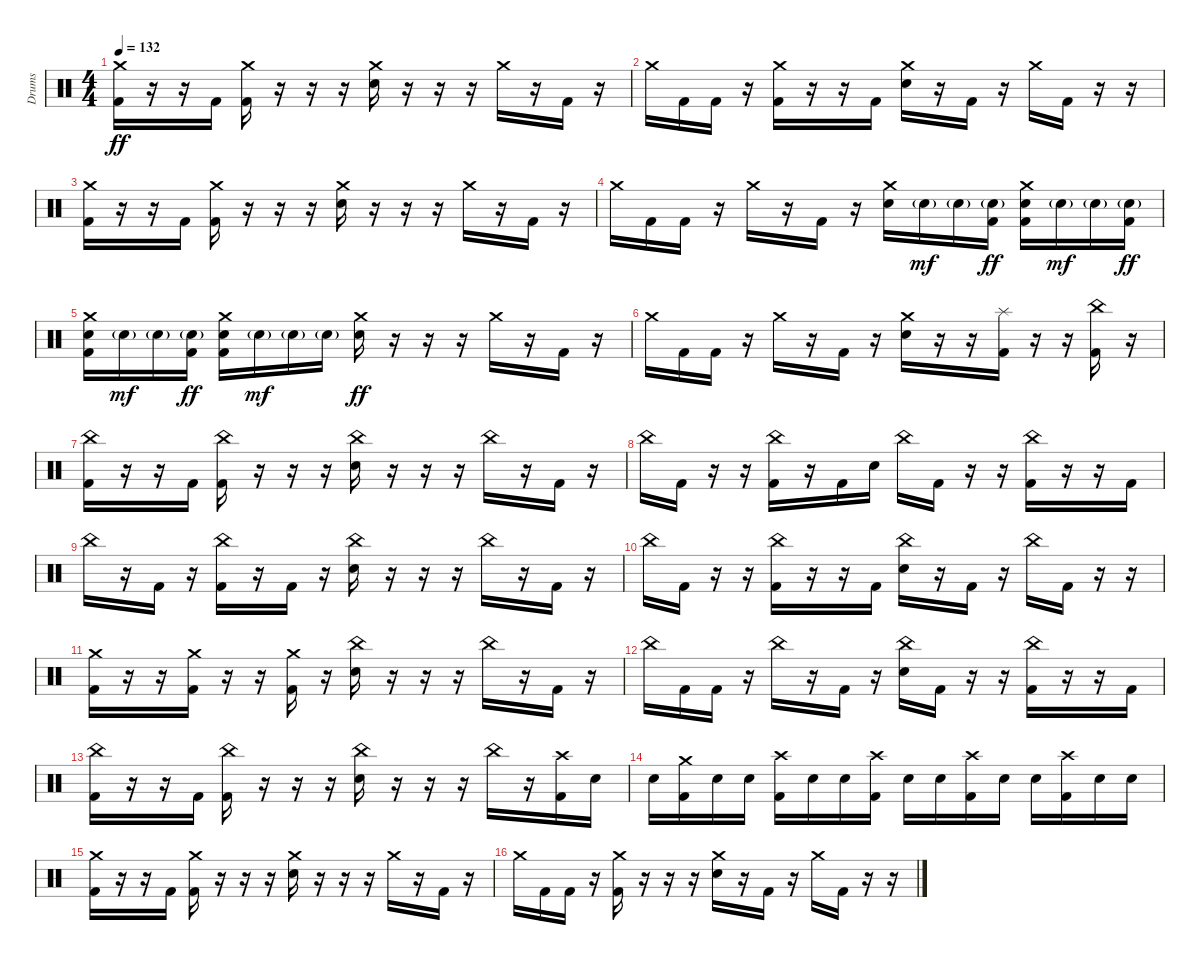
\track ("Drums" "Drums") {instrument percussion}
\staff {score}
\articulation defaults
\ts (4 4)
\tempo 132
\clef neutral
\ks c
("Crash medium (hit)" "Kick (hit) 2").16{dy ff} r.16 r.16 "Kick (hit) 2".16 ("Crash medium (hit)" "Kick (hit) 2").16 r.16 r.16 r.16 ("Crash medium (hit)" "Electric Snare (hit)").16 r.16 r.16 r.16 "Crash medium (hit)".16 r.16 "Kick (hit) 2".16 r.16 |
"Crash medium (hit)".16 "Kick (hit) 2".16 "Kick (hit) 2".16 r.16 ("Crash medium (hit)" "Kick (hit) 2").16 r.16 r.16 "Kick (hit) 2".16 ("Crash medium (hit)" "Electric Snare (hit)").16 r.16 "Kick (hit) 2".16 r.16 "Crash medium (hit)".16 "Kick (hit) 2".16 r.16 r.16 |
("Crash medium (hit)" "Kick (hit) 2").16 r.16 r.16 "Kick (hit) 2".16 ("Crash medium (hit)" "Kick (hit) 2").16 r.16 r.16 r.16 ("Crash medium (hit)" "Electric Snare (hit)").16 r.16 r.16 r.16 "Crash medium (hit)".16 r.16 "Kick (hit) 2".16 r.16 |
"Crash medium (hit)".16 "Kick (hit) 2".16 "Kick (hit) 2".16 r.16 "Crash medium (hit)".16 r.16 "Kick (hit) 2".16 r.16 ("Crash medium (hit)" "Electric Snare (hit)").16 "Electric Snare (hit)"{g}.16{dy mf} "Electric Snare (hit)"{g}.16 ("Electric Snare (hit)"{g} "Kick (hit) 2").16{dy ff} ("Crash medium (hit)" "Electric Snare (hit)" "Kick (hit) 2").16 "Electric Snare (hit)"{g}.16{dy mf} "Electric Snare (hit)"{g}.16 ("Electric Snare (hit)"{g} "Kick (hit) 2").16{dy ff} |
("Crash medium (hit)" "Electric Snare (hit)" "Kick (hit) 2").16 "Electric Snare (hit)"{g}.16{dy mf} "Electric Snare (hit)"{g}.16 ("Electric Snare (hit)"{g} "Kick (hit) 2").16{dy ff} ("Crash medium (hit)" "Electric Snare (hit)" "Kick (hit) 2").16 "Electric Snare (hit)"{g}.16{dy mf} "Electric Snare (hit)"{g}.16 "Electric Snare (hit)"{g}.16 ("Crash medium (hit)" "Electric Snare (hit)").16{dy ff} r.16 r.16 r.16 "Crash medium (hit)".16 r.16 "Kick (hit) 2".16 r.16 |
"Crash medium (hit)".16 "Kick (hit) 2".16 "Kick (hit) 2".16 r.16 "Crash medium (hit)".16 r.16 "Kick (hit) 2".16 r.16 ("Crash medium (hit)" "Electric Snare (hit)").16 r.16 r.16 ("Splash (hit)" "Kick (hit) 2").16 r.16 r.16 ("China (hit)" "Kick (hit) 2").16 r.16 |
("China (hit)" "Kick (hit) 2").16 r.16 r.16 "Kick (hit) 2".16 ("China (hit)" "Kick (hit) 2").16 r.16 r.16 r.16 ("China (hit)" "Electric Snare (hit)").16 r.16 r.16 r.16 "China (hit)".16 r.16 "Kick (hit) 2".16 r.16 |
"China (hit)".16 "Kick (hit) 2".16 r.16 r.16 ("China (hit)" "Kick (hit) 2").16 r.16 "Kick (hit) 2".16 "Electric Snare (hit)".16 "China (hit)".16 "Kick (hit) 2".16 r.16 r.16 ("China (hit)" "Kick (hit) 2").16 r.16 r.16 "Kick (hit) 2".16 |
"China (hit)".16 r.16 "Kick (hit) 2".16 r.16 ("China (hit)" "Kick (hit) 2").16 r.16 "Kick (hit) 2".16 r.16 ("China (hit)" "Electric Snare (hit)").16 r.16 r.16 r.16 "China (hit)".16 r.16 "Kick (hit) 2".16 r.16 |
"China (hit)".16 "Kick (hit) 2".16 r.16 r.16 ("China (hit)" "Kick (hit) 2").16 r.16 r.16 "Kick (hit) 2".16 ("China (hit)" "Electric Snare (hit)").16 r.16 "Kick (hit) 2".16 r.16 "China (hit)".16 "Kick (hit) 2".16 r.16 r.16 |
("Crash medium (hit)" "Kick (hit) 2").16 r.16 r.16 ("Crash medium (hit)" "Kick (hit) 2").16 r.16 r.16 ("Crash medium (hit)" "Kick (hit) 2").16 r.16 ("China (hit)" "Electric Snare (hit)").16 r.16 r.16 r.16 "China (hit)".16 r.16 "Kick (hit) 2".16 r.16 |
"China (hit)".16 "Kick (hit) 2".16 "Kick (hit) 2".16 r.16 "China (hit)".16 r.16 "Kick (hit) 2".16 r.16 ("China (hit)" "Electric Snare (hit)").16 "Kick (hit) 2".16 r.16 r.16 ("China (hit)" "Kick (hit) 2").16 r.16 r.16 "Kick (hit) 2".16 |
("China (hit)" "Kick (hit) 2").16 r.16 r.16 "Kick (hit) 2".16 ("China (hit)" "Kick (hit) 2").16 r.16 r.16 r.16 ("China (hit)" "Electric Snare (hit)").16 r.16 r.16 r.16 "China (hit)".16 r.16 ("Crash high (hit)" "Kick (hit) 2").16 "Electric Snare (hit)".16 |
"Electric Snare (hit)".16 ("Crash medium (hit)" "Kick (hit) 2").16 "Electric Snare (hit)".16 "Electric Snare (hit)".16 ("Crash high (hit)" "Kick (hit) 2").16 "Electric Snare (hit)".16 "Electric Snare (hit)".16 ("Crash high (hit)" "Kick (hit) 2").16 "Electric Snare (hit)".16 "Electric Snare (hit)".16 ("Crash high (hit)" "Kick (hit) 2").16 "Electric Snare (hit)".16 "Electric Snare (hit)".16 ("Crash high (hit)" "Kick (hit) 2").16 "Electric Snare (hit)".16 "Electric Snare (hit)".16 |
("Crash medium (hit)" "Kick (hit) 2").16 r.16 r.16 "Kick (hit) 2".16 ("Crash medium (hit)" "Kick (hit) 2").16 r.16 r.16 r.16 ("Crash medium (hit)" "Electric Snare (hit)").16 r.16 r.16 r.16 "Crash medium (hit)".16 r.16 "Kick (hit) 2".16 r.16 |
"Crash medium (hit)".16 "Kick (hit) 2".16 "Kick (hit) 2".16 r.16 ("Crash medium (hit)" "Kick (hit) 2").16 r.16 r.16 r.16 ("Crash medium (hit)" "Electric Snare (hit)").16 r.16 "Kick (hit) 2".16 r.16 "Crash medium (hit)".16 "Kick (hit) 2".16 r.16 r.16
